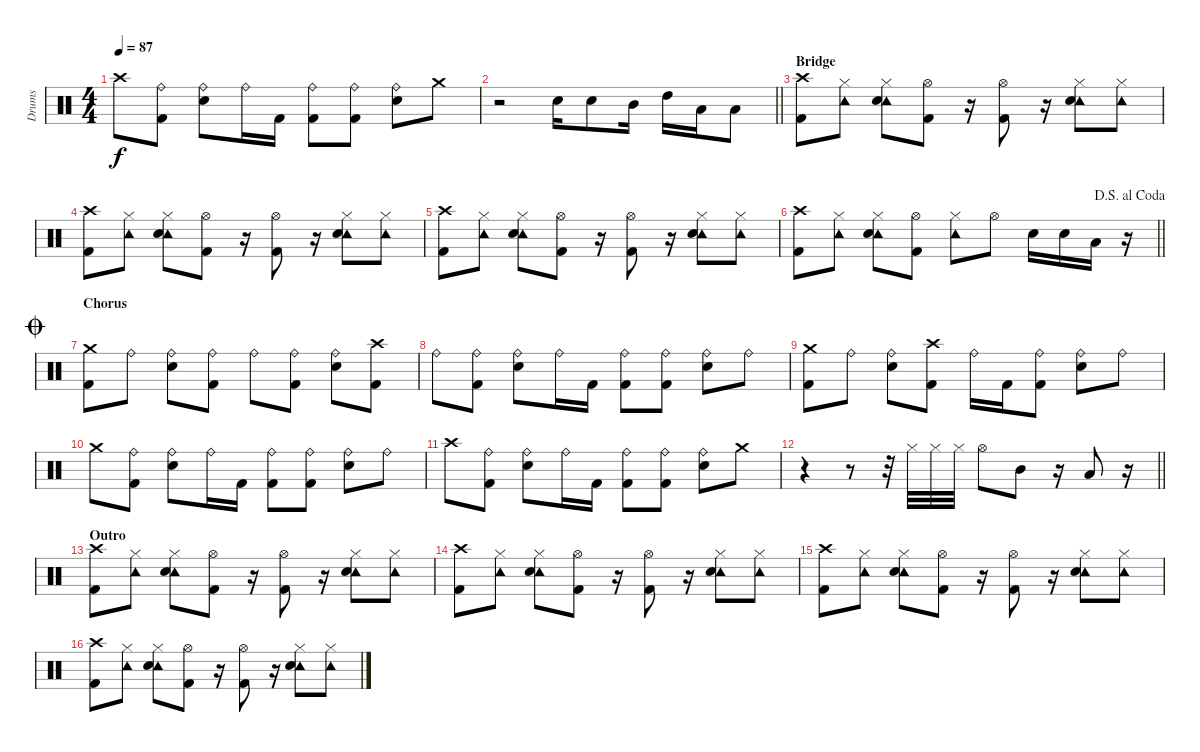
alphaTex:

\track ("Drums" "Drums") {instrument percussion}
\staff {score}
\articulation defaults
\ts (4 4)
\tempo 87
\clef neutral
\ks c "Crash high (hit)".8{dy f}
("Ride (bell)" "Kick (hit) 2").8 ("Ride (bell)" "Snare (hit) 2").8 "Ride (bell)".16 "Kick (hit) 2".16 ("Ride (bell)" "Kick (hit) 2").8 ("Ride (bell)" "Kick (hit) 2").8 ("Ride (bell)" "Snare (hit) 2").8 "Crash medium (hit)".8 |
\barLineRight lightlight
r.2 "Snare (hit) 2".16 "Snare (hit) 2".8 "Mid Tom (hit)".16 "High Tom (hit)".16 "Low Tom (hit)".16 "Low Floor Tom (hit)".8 |
\section ("" "Bridge")
("Crash high (hit)" "Kick (hit) 2").8 ("Tambourine (hit)" "Hi-Hat (closed)").8 ("Tambourine (hit)" "Hi-Hat (closed)" "Snare (hit) 2").8 ("Hi-Hat (open)" "Kick (hit) 2").8 r.16 ("Hi-Hat (open)" "Kick (hit) 2").8 r.16 ("Tambourine (hit)" "Hi-Hat (closed)" "Snare (hit) 2").8 ("Tambourine (hit)" "Hi-Hat (closed)").8 |
("Crash high (hit)" "Kick (hit) 2").8 ("Tambourine (hit)" "Hi-Hat (closed)").8 ("Tambourine (hit)" "Hi-Hat (closed)" "Snare (hit) 2").8 ("Hi-Hat (open)" "Kick (hit) 2").8 r.16 ("Hi-Hat (open)" "Kick (hit) 2").8 r.16 ("Tambourine (hit)" "Hi-Hat (closed)" "Snare (hit) 2").8 ("Tambourine (hit)" "Hi-Hat (closed)").8 |
("Crash high (hit)" "Kick (hit) 2").8 ("Tambourine (hit)" "Hi-Hat (closed)").8 ("Tambourine (hit)" "Hi-Hat (closed)" "Snare (hit) 2").8 ("Hi-Hat (open)" "Kick (hit) 2").8 r.16 ("Hi-Hat (open)" "Kick (hit) 2").8 r.16 ("Tambourine (hit)" "Hi-Hat (closed)" "Snare (hit) 2").8 ("Tambourine (hit)" "Hi-Hat (closed)").8 |
\jump dalsegnoalcoda
\barLineRight lightlight
("Crash high (hit)" "Kick (hit) 2").8 ("Tambourine (hit)" "Hi-Hat (closed)").8 ("Tambourine (hit)" "Hi-Hat (closed)" "Snare (hit) 2").8 ("Hi-Hat (open)" "Kick (hit) 2").8 ("Tambourine (hit)" "Hi-Hat (closed)").8 "Hi-Hat (open)".8 "Snare (hit) 2".16 "Snare (hit) 2".16 "Low Tom (hit)".16 r.16 |
\section ("" "Chorus")
\jump coda
("Crash medium (hit)" "Kick (hit) 2").8 "Ride (bell)".8 ("Ride (bell)" "Snare (hit) 2").8 ("Ride (bell)" "Kick (hit) 2").8 "Ride (bell)".8 ("Ride (bell)" "Kick (hit) 2").8 ("Ride (bell)" "Snare (hit) 2").8 ("Crash high (hit)" "Kick (hit) 2").8 |
"Ride (bell)".8 ("Ride (bell)" "Kick (hit) 2").8 ("Ride (bell)" "Snare (hit) 2").8 "Ride (bell)".16 "Kick (hit) 2".16 ("Ride (bell)" "Kick (hit) 2").8 ("Ride (bell)" "Kick (hit) 2").8 ("Ride (bell)" "Snare (hit) 2").8 "Ride (bell)".8 |
("Crash medium (hit)" "Kick (hit) 2").8 "Ride (bell)".8 ("Ride (bell)" "Snare (hit) 2").8 ("Crash high (hit)" "Kick (hit) 2").8 "Ride (bell)".16 "Kick (hit) 2".16 ("Ride (bell)" "Kick (hit) 2").8 ("Ride (bell)" "Snare (hit) 2").8 "Ride (bell)".8 |
"Crash medium (hit)".8 ("Ride (bell)" "Kick (hit) 2").8 ("Ride (bell)" "Snare (hit) 2").8 "Ride (bell)".16 "Kick (hit) 2".16 ("Ride (bell)" "Kick (hit) 2").8 ("Ride (bell)" "Kick (hit) 2").8 ("Ride (bell)" "Snare (hit) 2").8 "Ride (bell)".8 |
"Crash high (hit)".8 ("Ride (bell)" "Kick (hit) 2").8 ("Ride (bell)" "Snare (hit) 2").8 "Ride (bell)".16 "Kick (hit) 2".16 ("Ride (bell)" "Kick (hit) 2").8 ("Ride (bell)" "Kick (hit) 2").8 ("Ride (bell)" "Snare (hit) 2").8 "Crash medium (hit)".8 |
\barLineRight lightlight
r.4 r.8 r.32 "Hi-Hat (closed)".32 "Hi-Hat (closed)".32 "Hi-Hat (closed)".32 "Hi-Hat (open)".8 "Mid Tom (hit)".8 r.16 "Low Floor Tom (hit)".8 r.16 |
\section ("" "Outro")
("Crash high (hit)" "Kick (hit) 2").8 ("Tambourine (hit)" "Hi-Hat (closed)").8 ("Tambourine (hit)" "Hi-Hat (closed)" "Snare (hit) 2").8 ("Hi-Hat (open)" "Kick (hit) 2").8 r.16 ("Hi-Hat (open)" "Kick (hit) 2").8 r.16 ("Tambourine (hit)" "Hi-Hat (closed)" "Snare (hit) 2").8 ("Tambourine (hit)" "Hi-Hat (closed)").8 |
("Crash high (hit)" "Kick (hit) 2").8{volume 12} ("Tambourine (hit)" "Hi-Hat (closed)").8 ("Tambourine (hit)" "Hi-Hat (closed)" "Snare (hit) 2").8 ("Hi-Hat (open)" "Kick (hit) 2").8 r.16 ("Hi-Hat (open)" "Kick (hit) 2").8 r.16 ("Tambourine (hit)" "Hi-Hat (closed)" "Snare (hit) 2").8 ("Tambourine (hit)" "Hi-Hat (closed)").8 |
("Crash high (hit)" "Kick (hit) 2").8 ("Tambourine (hit)" "Hi-Hat (closed)").8 ("Tambourine (hit)" "Hi-Hat (closed)" "Snare (hit) 2").8 ("Hi-Hat (open)" "Kick (hit) 2").8 r.16 ("Hi-Hat (open)" "Kick (hit) 2").8 r.16 ("Tambourine (hit)" "Hi-Hat (closed)" "Snare (hit) 2").8 ("Tambourine (hit)" "Hi-Hat (closed)").8 |
("Crash high (hit)" "Kick (hit) 2").8{volume 10} ("Tambourine (hit)" "Hi-Hat (closed)").8 ("Tambourine (hit)" "Hi-Hat (closed)" "Snare (hit) 2").8 ("Hi-Hat (open)" "Kick (hit) 2").8 r.16 ("Hi-Hat (open)" "Kick (hit) 2").8 r.16 ("Tambourine (hit)" "Hi-Hat (closed)" "Snare (hit) 2").8 ("Tambourine (hit)" "Hi-Hat (closed)").8
